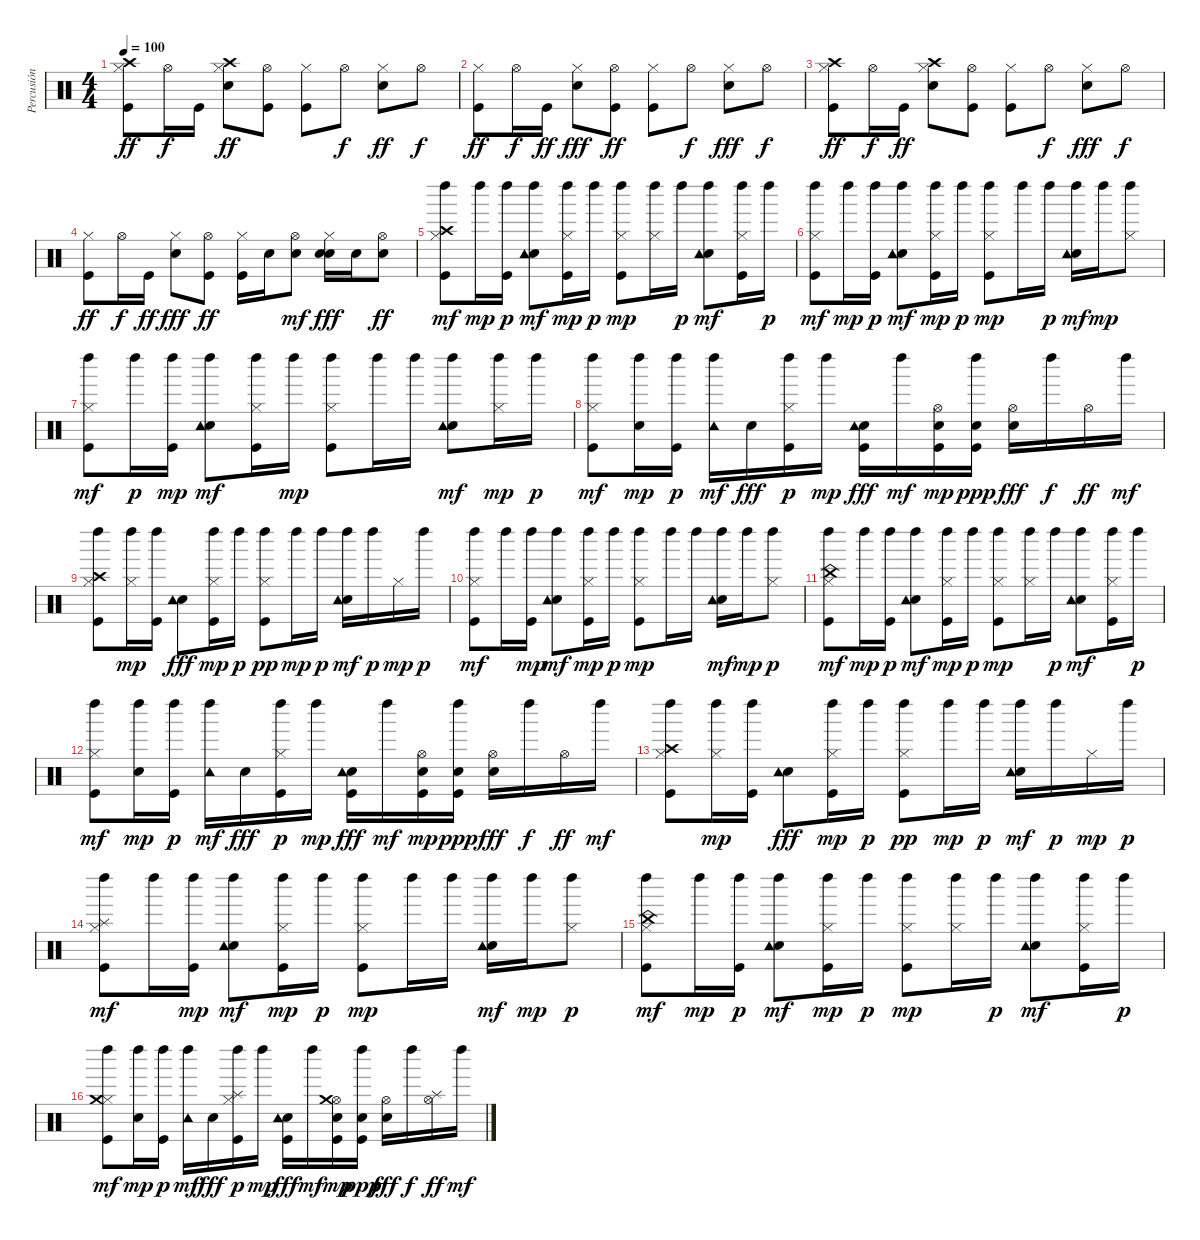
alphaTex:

\track ("Percusión" "Percusión") {instrument percussion}
\staff {score}
\articulation defaults
\ts (4 4)
\tempo 100
\clef neutral
\ks c
("Kick (hit)" "Hi-Hat (closed)" "Crash high (hit)").8{dy ff} "Hi-Hat (open)".16{dy f} "Kick (hit)".16 ("Snare (hit) 2" "Hi-Hat (closed)" "Crash high (hit)").8{dy ff} ("Kick (hit)" "Hi-Hat (open)").8 ("Kick (hit)" "Hi-Hat (closed)").8 "Hi-Hat (open)".8{dy f} ("Snare (hit) 2" "Hi-Hat (closed)").8{dy ff} "Hi-Hat (open)".8{dy f} |
("Kick (hit)" "Hi-Hat (closed)").8{dy ff} "Hi-Hat (open)".16{dy f} "Kick (hit)".16{dy ff} ("Snare (hit) 2" "Hi-Hat (closed)").8{dy fff} ("Kick (hit)" "Hi-Hat (open)").8{dy ff} ("Kick (hit)" "Hi-Hat (closed)").8 "Hi-Hat (open)".8{dy f} ("Snare (hit) 2" "Hi-Hat (closed)").8{dy fff} "Hi-Hat (open)".8{dy f} |
("Kick (hit)" "Hi-Hat (closed)" "Crash high (hit)").8{dy ff} "Hi-Hat (open)".16{dy f} "Kick (hit)".16{dy ff} ("Snare (hit) 2" "Hi-Hat (closed)" "Crash high (hit)").8 ("Kick (hit)" "Hi-Hat (open)").8 ("Kick (hit)" "Hi-Hat (closed)").8 "Hi-Hat (open)".8{dy f} ("Snare (hit) 2" "Hi-Hat (closed)").8{dy fff} "Hi-Hat (open)".8{dy f} |
("Kick (hit)" "Hi-Hat (closed)").8{dy ff} "Hi-Hat (open)".16{dy f} "Kick (hit)".16{dy ff} ("Snare (hit) 2" "Hi-Hat (closed)").8{dy fff} ("Kick (hit)" "Hi-Hat (open)").8{dy ff} ("Kick (hit)" "Hi-Hat (closed)").16 "Electric Snare (hit)".16 ("Electric Snare (hit)" "Hi-Hat (open)").8{dy mf} ("Snare (hit) 2" "Electric Snare (hit)" "Hi-Hat (closed)").16{dy fff} "Electric Snare (hit)".16 ("Electric Snare (hit)" "Hi-Hat (open)").8{dy ff} |
("Kick (hit)" "Hi-Hat (closed)" "Crash high (hit)" "Left Maraca (hit)").8{dy mf} "Left Maraca (hit)".16{dy mp} ("Kick (hit)" "Left Maraca (hit)").16{dy p} ("Snare (hit) 2" "Tambourine (hit)" "Left Maraca (hit)").8{dy mf} ("Kick (hit)" "Hi-Hat (closed)" "Left Maraca (hit)").16{dy mp} "Left Maraca (hit)".16{dy p} ("Kick (hit)" "Hi-Hat (closed)" "Left Maraca (hit)").8{dy mp} ("Hi-Hat (closed)" "Left Maraca (hit)").16 "Left Maraca (hit)".16{dy p} ("Snare (hit) 2" "Tambourine (hit)" "Left Maraca (hit)").8{dy mf} ("Kick (hit)" "Hi-Hat (closed)" "Left Maraca (hit)").16 "Left Maraca (hit)".16{dy p} |
("Kick (hit)" "Hi-Hat (closed)" "Left Maraca (hit)").8{dy mf} "Left Maraca (hit)".16{dy mp} ("Kick (hit)" "Left Maraca (hit)").16{dy p} ("Snare (hit) 2" "Tambourine (hit)" "Left Maraca (hit)").8{dy mf} ("Kick (hit)" "Hi-Hat (closed)" "Left Maraca (hit)").16{dy mp} "Left Maraca (hit)".16{dy p} ("Kick (hit)" "Hi-Hat (closed)" "Left Maraca (hit)").8{dy mp} "Left Maraca (hit)".16 "Left Maraca (hit)".16{dy p} ("Snare (hit) 2" "Tambourine (hit)" "Left Maraca (hit)").16{dy mf} "Left Maraca (hit)".16{dy mp} ("Hi-Hat (closed)" "Left Maraca (hit)").8 |
("Kick (hit)" "Hi-Hat (closed)" "Left Maraca (hit)").8{dy mf} "Left Maraca (hit)".16{dy p} ("Kick (hit)" "Left Maraca (hit)").16{dy mp} ("Snare (hit) 2" "Tambourine (hit)" "Left Maraca (hit)").8{dy mf} ("Kick (hit)" "Hi-Hat (closed)" "Left Maraca (hit)").16 "Left Maraca (hit)".16{dy mp} ("Kick (hit)" "Hi-Hat (closed)" "Left Maraca (hit)").8 "Left Maraca (hit)".16 "Left Maraca (hit)".16 ("Snare (hit) 2" "Tambourine (hit)" "Left Maraca (hit)").8{dy mf} ("Hi-Hat (closed)" "Left Maraca (hit)").16{dy mp} "Left Maraca (hit)".16{dy p} |
("Kick (hit)" "Hi-Hat (closed)" "Left Maraca (hit)").8{dy mf} ("Snare (hit) 2" "Left Maraca (hit)").16{dy mp} ("Kick (hit)" "Left Maraca (hit)").16{dy p} ("Tambourine (hit)" "Left Maraca (hit)").16{dy mf} "Snare (hit) 2".16{dy fff} ("Kick (hit)" "Hi-Hat (closed)" "Left Maraca (hit)").16{dy p} "Left Maraca (hit)".16{dy mp} ("Kick (hit)" "Snare (hit) 2" "Tambourine (hit)").16{dy fff} "Left Maraca (hit)".16{dy mf} ("Kick (hit)" "Snare (hit) 2" "Hi-Hat (open)").16{dy mp} ("Kick (hit)" "Snare (hit) 2" "Left Maraca (hit)").16{dy ppp} ("Snare (hit) 2" "Hi-Hat (open)").16{dy fff} "Left Maraca (hit)".16{dy f} "Hi-Hat (open)".16{dy ff} "Left Maraca (hit)".16{dy mf} |
("Kick (hit)" "Hi-Hat (closed)" "Crash high (hit)" "Left Maraca (hit)").8 ("Hi-Hat (closed)" "Left Maraca (hit)").16{dy mp} ("Kick (hit)" "Left Maraca (hit)").16 ("Snare (hit) 2" "Tambourine (hit)").8{dy fff} ("Kick (hit)" "Hi-Hat (closed)" "Left Maraca (hit)").16{dy mp} "Left Maraca (hit)".16{dy p} ("Kick (hit)" "Hi-Hat (closed)" "Left Maraca (hit)").8{dy pp} "Left Maraca (hit)".16{dy mp} "Left Maraca (hit)".16{dy p} ("Snare (hit) 2" "Tambourine (hit)" "Left Maraca (hit)").16{dy mf} "Left Maraca (hit)".16{dy p} "Hi-Hat (closed)".16{dy mp} "Left Maraca (hit)".16{dy p} |
("Kick (hit)" "Hi-Hat (closed)" "Left Maraca (hit)").8{dy mf} "Left Maraca (hit)".16 ("Kick (hit)" "Left Maraca (hit)").16{dy mp} ("Snare (hit) 2" "Tambourine (hit)" "Left Maraca (hit)").8{dy mf} ("Kick (hit)" "Hi-Hat (closed)" "Left Maraca (hit)").16{dy mp} "Left Maraca (hit)".16{dy p} ("Kick (hit)" "Hi-Hat (closed)" "Left Maraca (hit)").8{dy mp} "Left Maraca (hit)".16 "Left Maraca (hit)".16 ("Snare (hit) 2" "Tambourine (hit)" "Left Maraca (hit)").16{dy mf} "Left Maraca (hit)".16{dy mp} ("Hi-Hat (closed)" "Left Maraca (hit)").8{dy p} |
("Kick (hit)" "Hi-Hat (closed)" "China (hit)" "Left Maraca (hit)").8{dy mf} "Left Maraca (hit)".16{dy mp} ("Kick (hit)" "Left Maraca (hit)").16{dy p} ("Snare (hit) 2" "Tambourine (hit)" "Left Maraca (hit)").8{dy mf} ("Kick (hit)" "Hi-Hat (closed)" "Left Maraca (hit)").16{dy mp} "Left Maraca (hit)".16{dy p} ("Kick (hit)" "Hi-Hat (closed)" "Left Maraca (hit)").8{dy mp} ("Hi-Hat (closed)" "Left Maraca (hit)").16 "Left Maraca (hit)".16{dy p} ("Snare (hit) 2" "Tambourine (hit)" "Left Maraca (hit)").8{dy mf} ("Kick (hit)" "Hi-Hat (closed)" "Left Maraca (hit)").16 "Left Maraca (hit)".16{dy p} |
("Kick (hit)" "Hi-Hat (closed)" "Left Maraca (hit)").8{dy mf} ("Snare (hit) 2" "Left Maraca (hit)").16{dy mp} ("Kick (hit)" "Left Maraca (hit)").16{dy p} ("Tambourine (hit)" "Left Maraca (hit)").16{dy mf} "Snare (hit) 2".16{dy fff} ("Kick (hit)" "Hi-Hat (closed)" "Left Maraca (hit)").16{dy p} "Left Maraca (hit)".16{dy mp} ("Kick (hit)" "Snare (hit) 2" "Tambourine (hit)").16{dy fff} "Left Maraca (hit)".16{dy mf} ("Kick (hit)" "Snare (hit) 2" "Hi-Hat (open)").16{dy mp} ("Kick (hit)" "Snare (hit) 2" "Left Maraca (hit)").16{dy ppp} ("Snare (hit) 2" "Hi-Hat (open)").16{dy fff} "Left Maraca (hit)".16{dy f} "Hi-Hat (open)".16{dy ff} "Left Maraca (hit)".16{dy mf} |
("Kick (hit)" "Hi-Hat (closed)" "Crash high (hit)" "Left Maraca (hit)").8 ("Hi-Hat (closed)" "Left Maraca (hit)").16{dy mp} ("Kick (hit)" "Left Maraca (hit)").16 ("Snare (hit) 2" "Tambourine (hit)").8{dy fff} ("Kick (hit)" "Hi-Hat (closed)" "Left Maraca (hit)").16{dy mp} "Left Maraca (hit)".16{dy p} ("Kick (hit)" "Hi-Hat (closed)" "Left Maraca (hit)").8{dy pp} "Left Maraca (hit)".16{dy mp} "Left Maraca (hit)".16{dy p} ("Snare (hit) 2" "Tambourine (hit)" "Left Maraca (hit)").16{dy mf} "Left Maraca (hit)".16{dy p} "Hi-Hat (closed)".16{dy mp} "Left Maraca (hit)".16{dy p} |
("Kick (hit)" "Hi-Hat (closed)" "Splash (hit)" "Left Maraca (hit)").8{dy mf} "Left Maraca (hit)".16 ("Kick (hit)" "Left Maraca (hit)").16{dy mp} ("Snare (hit) 2" "Tambourine (hit)" "Left Maraca (hit)").8{dy mf} ("Kick (hit)" "Hi-Hat (closed)" "Left Maraca (hit)").16{dy mp} "Left Maraca (hit)".16{dy p} ("Kick (hit)" "Hi-Hat (closed)" "Left Maraca (hit)").8{dy mp} "Left Maraca (hit)".16 "Left Maraca (hit)".16 ("Snare (hit) 2" "Tambourine (hit)" "Left Maraca (hit)").16{dy mf} "Left Maraca (hit)".16{dy mp} ("Hi-Hat (closed)" "Left Maraca (hit)").8{dy p} |
("Kick (hit)" "Hi-Hat (closed)" "China (hit)" "Left Maraca (hit)").8{dy mf} "Left Maraca (hit)".16{dy mp} ("Kick (hit)" "Left Maraca (hit)").16{dy p} ("Snare (hit) 2" "Tambourine (hit)" "Left Maraca (hit)").8{dy mf} ("Kick (hit)" "Hi-Hat (closed)" "Left Maraca (hit)").16{dy mp} "Left Maraca (hit)".16{dy p} ("Kick (hit)" "Hi-Hat (closed)" "Left Maraca (hit)").8{dy mp} ("Hi-Hat (closed)" "Left Maraca (hit)").16 "Left Maraca (hit)".16{dy p} ("Snare (hit) 2" "Tambourine (hit)" "Left Maraca (hit)").8{dy mf} ("Kick (hit)" "Hi-Hat (closed)" "Left Maraca (hit)").16 "Left Maraca (hit)".16{dy p} |
("Kick (hit)" "Hi-Hat (closed)" "Crash medium (hit)" "Left Maraca (hit)").8{dy mf} ("Snare (hit) 2" "Left Maraca (hit)").16{dy mp} ("Kick (hit)" "Left Maraca (hit)").16{dy p} ("Tambourine (hit)" "Left Maraca (hit)").16{dy mf} "Snare (hit) 2".16{dy fff} ("Kick (hit)" "Hi-Hat (closed)" "Splash (hit)" "Left Maraca (hit)").16{dy p} "Left Maraca (hit)".16{dy mp} ("Kick (hit)" "Snare (hit) 2" "Tambourine (hit)").16{dy fff} "Left Maraca (hit)".16{dy mf} ("Kick (hit)" "Snare (hit) 2" "Hi-Hat (open)" "Crash medium (hit)").16{dy mp} ("Kick (hit)" "Snare (hit) 2" "Left Maraca (hit)").16{dy ppp} ("Snare (hit) 2" "Hi-Hat (open)").16{dy fff} "Left Maraca (hit)".16{dy f} ("Hi-Hat (open)" "Splash (hit)").16{dy ff} "Left Maraca (hit)".16{dy mf}
